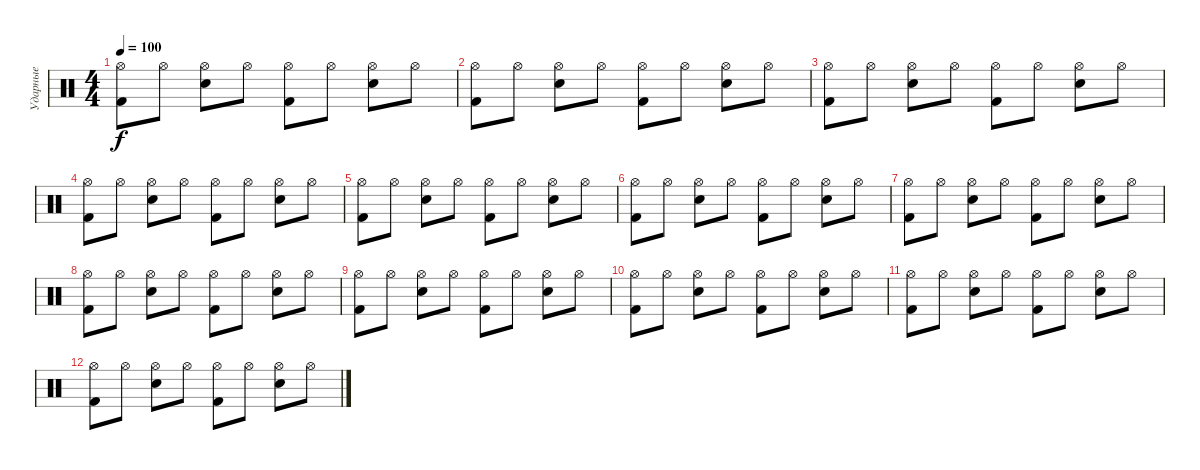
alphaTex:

\track ("Ударные" "Ударные") {instrument percussion}
\staff {score}
\articulation defaults
\ts (4 4)
\tempo 100
\clef neutral
\ks c
("Hi-Hat (open)" "Kick (hit) 2").8{dy f} "Hi-Hat (open)".8 ("Hi-Hat (open)" "Electric Snare (hit)").8 "Hi-Hat (open)".8 ("Hi-Hat (open)" "Kick (hit) 2").8 "Hi-Hat (open)".8 ("Hi-Hat (open)" "Electric Snare (hit)").8 "Hi-Hat (open)".8 |
("Hi-Hat (open)" "Kick (hit) 2").8 "Hi-Hat (open)".8 ("Hi-Hat (open)" "Electric Snare (hit)").8 "Hi-Hat (open)".8 ("Hi-Hat (open)" "Kick (hit) 2").8 "Hi-Hat (open)".8 ("Hi-Hat (open)" "Electric Snare (hit)").8 "Hi-Hat (open)".8 |
("Hi-Hat (open)" "Kick (hit) 2").8 "Hi-Hat (open)".8 ("Hi-Hat (open)" "Electric Snare (hit)").8 "Hi-Hat (open)".8 ("Hi-Hat (open)" "Kick (hit) 2").8 "Hi-Hat (open)".8 ("Hi-Hat (open)" "Electric Snare (hit)").8 "Hi-Hat (open)".8 |
("Hi-Hat (open)" "Kick (hit) 2").8 "Hi-Hat (open)".8 ("Hi-Hat (open)" "Electric Snare (hit)").8 "Hi-Hat (open)".8 ("Hi-Hat (open)" "Kick (hit) 2").8 "Hi-Hat (open)".8 ("Hi-Hat (open)" "Electric Snare (hit)").8 "Hi-Hat (open)".8 |
("Hi-Hat (open)" "Kick (hit) 2").8 "Hi-Hat (open)".8 ("Hi-Hat (open)" "Electric Snare (hit)").8 "Hi-Hat (open)".8 ("Hi-Hat (open)" "Kick (hit) 2").8 "Hi-Hat (open)".8 ("Hi-Hat (open)" "Electric Snare (hit)").8 "Hi-Hat (open)".8 |
("Hi-Hat (open)" "Kick (hit) 2").8 "Hi-Hat (open)".8 ("Hi-Hat (open)" "Electric Snare (hit)").8 "Hi-Hat (open)".8 ("Hi-Hat (open)" "Kick (hit) 2").8 "Hi-Hat (open)".8 ("Hi-Hat (open)" "Electric Snare (hit)").8 "Hi-Hat (open)".8 |
("Hi-Hat (open)" "Kick (hit) 2").8 "Hi-Hat (open)".8 ("Hi-Hat (open)" "Electric Snare (hit)").8 "Hi-Hat (open)".8 ("Hi-Hat (open)" "Kick (hit) 2").8 "Hi-Hat (open)".8 ("Hi-Hat (open)" "Electric Snare (hit)").8 "Hi-Hat (open)".8 |
("Hi-Hat (open)" "Kick (hit) 2").8 "Hi-Hat (open)".8 ("Hi-Hat (open)" "Electric Snare (hit)").8 "Hi-Hat (open)".8 ("Hi-Hat (open)" "Kick (hit) 2").8 "Hi-Hat (open)".8 ("Hi-Hat (open)" "Electric Snare (hit)").8 "Hi-Hat (open)".8 |
("Hi-Hat (open)" "Kick (hit) 2").8 "Hi-Hat (open)".8 ("Hi-Hat (open)" "Electric Snare (hit)").8 "Hi-Hat (open)".8 ("Hi-Hat (open)" "Kick (hit) 2").8 "Hi-Hat (open)".8 ("Hi-Hat (open)" "Electric Snare (hit)").8 "Hi-Hat (open)".8 |
("Hi-Hat (open)" "Kick (hit) 2").8 "Hi-Hat (open)".8 ("Hi-Hat (open)" "Electric Snare (hit)").8 "Hi-Hat (open)".8 ("Hi-Hat (open)" "Kick (hit) 2").8 "Hi-Hat (open)".8 ("Hi-Hat (open)" "Electric Snare (hit)").8 "Hi-Hat (open)".8 |
("Hi-Hat (open)" "Kick (hit) 2").8 "Hi-Hat (open)".8 ("Hi-Hat (open)" "Electric Snare (hit)").8 "Hi-Hat (open)".8 ("Hi-Hat (open)" "Kick (hit) 2").8 "Hi-Hat (open)".8 ("Hi-Hat (open)" "Electric Snare (hit)").8 "Hi-Hat (open)".8 |
("Hi-Hat (open)" "Kick (hit) 2").8 "Hi-Hat (open)".8 ("Hi-Hat (open)" "Electric Snare (hit)").8 "Hi-Hat (open)".8 ("Hi-Hat (open)" "Kick (hit) 2").8 "Hi-Hat (open)".8 ("Hi-Hat (open)" "Electric Snare (hit)").8 "Hi-Hat (open)".8
